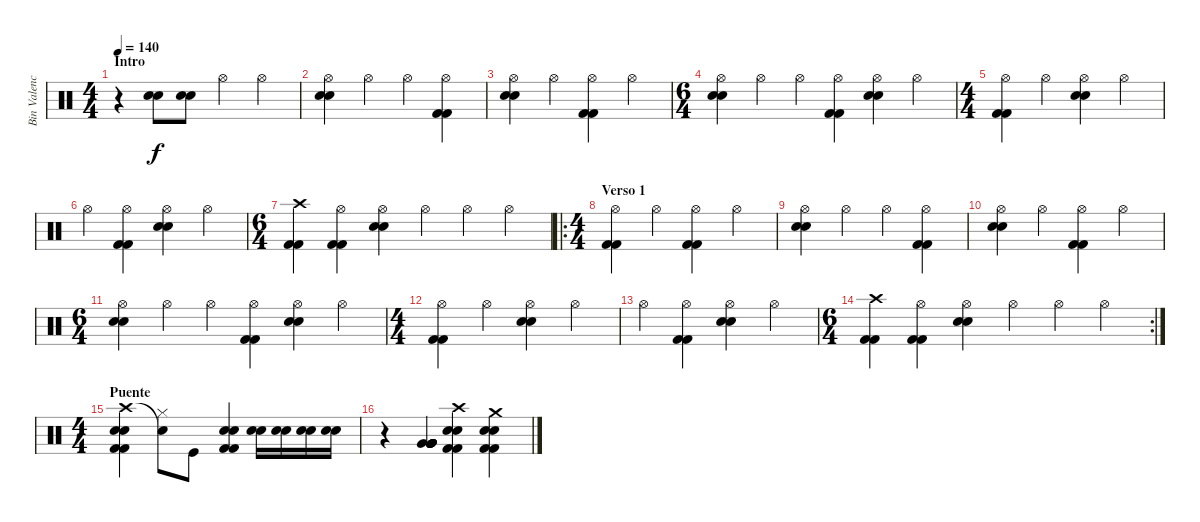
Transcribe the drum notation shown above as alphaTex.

\track ("Bin Valencia (Bateria)" "Bin Valenc") {instrument percussion}
\staff {score}
\articulation defaults
\ts (4 4)
\section ("" "Intro")
\tempo 140
\clef neutral
\ks c
r.4{dy f} ("Snare (hit) 2" "Snare (hit) 2").8 ("Snare (hit) 2" "Snare (hit) 2").8 "Hi-Hat (open)".4 "Hi-Hat (open)".4 |
("Hi-Hat (open)" "Snare (hit) 2" "Snare (hit) 2").4 "Hi-Hat (open)".4 "Hi-Hat (open)".4 ("Hi-Hat (open)" "Kick (hit) 2" "Kick (hit) 2").4 |
("Hi-Hat (open)" "Snare (hit) 2" "Snare (hit) 2").4 "Hi-Hat (open)".4 ("Hi-Hat (open)" "Kick (hit) 2" "Kick (hit) 2").4 "Hi-Hat (open)".4 |
\ts (6 4)
("Hi-Hat (open)" "Snare (hit) 2" "Snare (hit) 2").4 "Hi-Hat (open)".4 "Hi-Hat (open)".4 ("Hi-Hat (open)" "Kick (hit) 2" "Kick (hit) 2").4 ("Hi-Hat (open)" "Snare (hit) 2" "Snare (hit) 2").4 "Hi-Hat (open)".4 |
\ts (4 4)
("Hi-Hat (open)" "Kick (hit) 2" "Kick (hit) 2").4 "Hi-Hat (open)".4 ("Hi-Hat (open)" "Snare (hit) 2" "Snare (hit) 2").4 "Hi-Hat (open)".4 |
"Hi-Hat (open)".4 ("Hi-Hat (open)" "Kick (hit) 2" "Kick (hit) 2").4 ("Hi-Hat (open)" "Snare (hit) 2" "Snare (hit) 2").4 "Hi-Hat (open)".4 |
\ts (6 4)
("Crash high (hit)" "Kick (hit) 2" "Kick (hit) 2").4 ("Hi-Hat (open)" "Kick (hit) 2" "Kick (hit) 2").4 ("Hi-Hat (open)" "Snare (hit) 2" "Snare (hit) 2").4 "Hi-Hat (open)".4 "Hi-Hat (open)".4 "Hi-Hat (open)".4 |
\ro
\ts (4 4)
\section ("" "Verso 1")
("Hi-Hat (open)" "Kick (hit) 2" "Kick (hit) 2").4 "Hi-Hat (open)".4 ("Hi-Hat (open)" "Kick (hit) 2" "Kick (hit) 2").4 "Hi-Hat (open)".4 |
("Hi-Hat (open)" "Snare (hit) 2" "Snare (hit) 2").4 "Hi-Hat (open)".4 "Hi-Hat (open)".4 ("Hi-Hat (open)" "Kick (hit) 2" "Kick (hit) 2").4 |
("Hi-Hat (open)" "Snare (hit) 2" "Snare (hit) 2").4 "Hi-Hat (open)".4 ("Hi-Hat (open)" "Kick (hit) 2" "Kick (hit) 2").4 "Hi-Hat (open)".4 |
\ts (6 4)
("Hi-Hat (open)" "Snare (hit) 2" "Snare (hit) 2").4 "Hi-Hat (open)".4 "Hi-Hat (open)".4 ("Hi-Hat (open)" "Kick (hit) 2" "Kick (hit) 2").4 ("Hi-Hat (open)" "Snare (hit) 2" "Snare (hit) 2").4 "Hi-Hat (open)".4 |
\ts (4 4)
("Hi-Hat (open)" "Kick (hit) 2" "Kick (hit) 2").4 "Hi-Hat (open)".4 ("Hi-Hat (open)" "Snare (hit) 2" "Snare (hit) 2").4 "Hi-Hat (open)".4 |
"Hi-Hat (open)".4 ("Hi-Hat (open)" "Kick (hit) 2" "Kick (hit) 2").4 ("Hi-Hat (open)" "Snare (hit) 2" "Snare (hit) 2").4 "Hi-Hat (open)".4 |
\rc 2
\ts (6 4)
("Crash high (hit)" "Kick (hit) 2" "Kick (hit) 2").4 ("Hi-Hat (open)" "Kick (hit) 2" "Kick (hit) 2").4 ("Hi-Hat (open)" "Snare (hit) 2" "Snare (hit) 2").4 "Hi-Hat (open)".4 "Hi-Hat (open)".4 "Hi-Hat (open)".4 |
\ts (4 4)
\section ("" "Puente")
("Crash high (hit)" "Kick (hit) 2" "Kick (hit) 2" "Snare (hit) 2" "Snare (hit) 2").4 ("Snare (hit)"{t} "Hi-Hat (closed)").8 "Kick (hit)".8 ("Kick (hit) 2" "Kick (hit) 2" "Snare (hit) 2" "Snare (hit) 2").4 ("Snare (hit) 2" "Snare (hit) 2").16 ("Snare (hit) 2" "Snare (hit) 2").16 ("Snare (hit) 2" "Snare (hit) 2").16 ("Snare (hit) 2" "Snare (hit) 2").16 |
r.4 ("Very Low Tom (hit)" "Very Low Tom (hit)" "Very Low Tom (hit)" "Very Low Tom (hit)" "Very Low Tom (hit)" "Very Low Tom (hit)").4 ("Crash high (hit)" "Snare (hit) 2" "Snare (hit) 2" "Kick (hit) 2" "Kick (hit) 2").4 ("Crash medium (hit)" "Snare (hit) 2" "Snare (hit) 2" "Kick (hit) 2" "Kick (hit) 2").4
